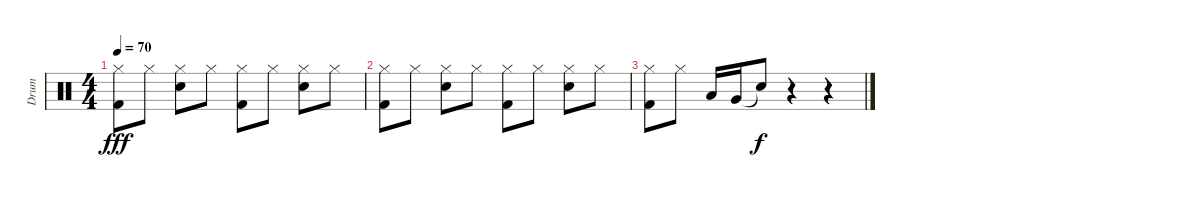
\track ("Drum" "Drum") {instrument percussion}
\staff {score}
\articulation defaults
\ts (4 4)
\tempo 70
\clef neutral
\ks c
("Hi-Hat (closed)" "Kick (hit) 2").8{dy fff} "Hi-Hat (closed)".8 ("Hi-Hat (closed)" "Electric Snare (hit)").8 "Hi-Hat (closed)".8 ("Hi-Hat (closed)" "Kick (hit) 2").8 "Hi-Hat (closed)".8 ("Hi-Hat (closed)" "Electric Snare (hit)").8 "Hi-Hat (closed)".8 |
("Hi-Hat (closed)" "Kick (hit) 2").8 "Hi-Hat (closed)".8 ("Hi-Hat (closed)" "Electric Snare (hit)").8 "Hi-Hat (closed)".8 ("Hi-Hat (closed)" "Kick (hit) 2").8 "Hi-Hat (closed)".8 ("Hi-Hat (closed)" "Electric Snare (hit)").8 "Hi-Hat (closed)".8 |
("Hi-Hat (closed)" "Kick (hit) 2").8 "Hi-Hat (closed)".8 "Low Tom (hit)".16 "Very Low Tom (hit)".16 "Snare (hit)"{t}.8{dy f} r.4 r.4
